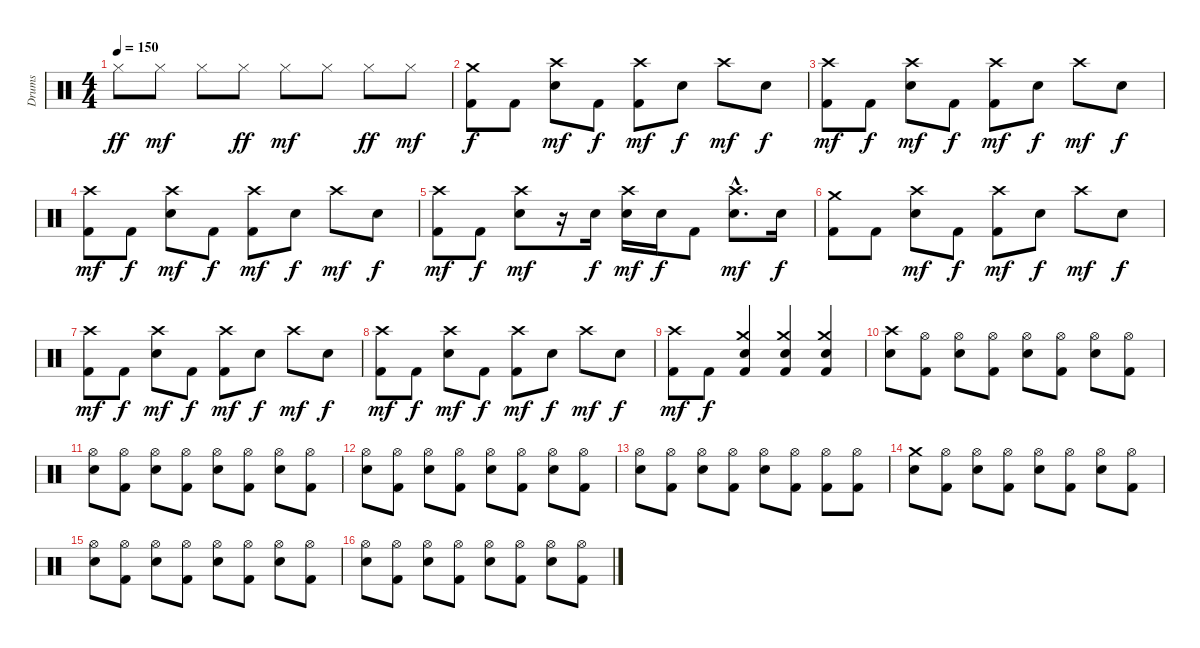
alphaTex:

\track ("Drums" "Drums") {instrument percussion}
\staff {score}
\articulation defaults
\ts (4 4)
\tempo 150
\clef neutral
\ks c "Hi-Hat (closed)".8{dy ff} "Hi-Hat (closed)".8{dy mf} "Hi-Hat (closed)".8 "Hi-Hat (closed)".8{dy ff} "Hi-Hat (closed)".8{dy mf} "Hi-Hat (closed)".8 "Hi-Hat (closed)".8{dy ff} "Hi-Hat (closed)".8{dy mf}
|
("Kick (hit) 2" "Crash medium (hit)").8{dy f} "Kick (hit) 2".8 ("Electric Snare (hit)" "Crash high (hit)").8{dy mf} "Kick (hit) 2".8{dy f} ("Kick (hit) 2" "Crash high (hit)").8{dy mf} "Electric Snare (hit)".8{dy f} "Crash high (hit)".8{dy mf} "Electric Snare (hit)".8{dy f} |
("Kick (hit) 2" "Crash high (hit)").8{dy mf} "Kick (hit) 2".8{dy f} ("Electric Snare (hit)" "Crash high (hit)").8{dy mf} "Kick (hit) 2".8{dy f} ("Kick (hit) 2" "Crash high (hit)").8{dy mf} "Electric Snare (hit)".8{dy f} "Crash high (hit)".8{dy mf} "Electric Snare (hit)".8{dy f} |
("Kick (hit) 2" "Crash high (hit)").8{dy mf} "Kick (hit) 2".8{dy f} ("Electric Snare (hit)" "Crash high (hit)").8{dy mf} "Kick (hit) 2".8{dy f} ("Kick (hit) 2" "Crash high (hit)").8{dy mf} "Electric Snare (hit)".8{dy f} "Crash high (hit)".8{dy mf} "Electric Snare (hit)".8{dy f} |
("Kick (hit) 2" "Crash high (hit)").8{dy mf} "Kick (hit) 2".8{dy f} ("Electric Snare (hit)" "Crash high (hit)").8{dy mf} r.16 "Electric Snare (hit)".16{dy f} ("Electric Snare (hit)" "Crash high (hit)").16{dy mf} "Electric Snare (hit)".16{dy f} "Kick (hit) 2".8 ("Electric Snare (hit)"{hac} "Crash high (hit)"{hac}).8{d dy mf} "Electric Snare (hit)".16{dy f} |
("Kick (hit) 2" "Crash medium (hit)").8 "Kick (hit) 2".8 ("Electric Snare (hit)" "Crash high (hit)").8{dy mf} "Kick (hit) 2".8{dy f} ("Kick (hit) 2" "Crash high (hit)").8{dy mf} "Electric Snare (hit)".8{dy f} "Crash high (hit)".8{dy mf} "Electric Snare (hit)".8{dy f} |
("Kick (hit) 2" "Crash high (hit)").8{dy mf} "Kick (hit) 2".8{dy f} ("Electric Snare (hit)" "Crash high (hit)").8{dy mf} "Kick (hit) 2".8{dy f} ("Kick (hit) 2" "Crash high (hit)").8{dy mf} "Electric Snare (hit)".8{dy f} "Crash high (hit)".8{dy mf} "Electric Snare (hit)".8{dy f} |
("Kick (hit) 2" "Crash high (hit)").8{dy mf} "Kick (hit) 2".8{dy f} ("Electric Snare (hit)" "Crash high (hit)").8{dy mf} "Kick (hit) 2".8{dy f} ("Kick (hit) 2" "Crash high (hit)").8{dy mf} "Electric Snare (hit)".8{dy f} "Crash high (hit)".8{dy mf} "Electric Snare (hit)".8{dy f} |
("Kick (hit) 2" "Crash high (hit)").8{dy mf} "Kick (hit) 2".8{dy f} ("Kick (hit) 2" "Electric Snare (hit)" "Crash medium (hit)").4 ("Kick (hit) 2" "Electric Snare (hit)" "Crash medium (hit)").4 ("Kick (hit) 2" "Electric Snare (hit)" "Crash medium (hit)").4 |
("Electric Snare (hit)" "Crash high (hit)").8 ("Kick (hit) 2" "Hi-Hat (open)").8 ("Electric Snare (hit)" "Hi-Hat (open)").8 ("Kick (hit) 2" "Hi-Hat (open)").8 ("Electric Snare (hit)" "Hi-Hat (open)").8 ("Kick (hit) 2" "Hi-Hat (open)").8 ("Electric Snare (hit)" "Hi-Hat (open)").8 ("Kick (hit) 2" "Hi-Hat (open)").8 |
("Electric Snare (hit)" "Hi-Hat (open)").8 ("Kick (hit) 2" "Hi-Hat (open)").8 ("Electric Snare (hit)" "Hi-Hat (open)").8 ("Kick (hit) 2" "Hi-Hat (open)").8 ("Electric Snare (hit)" "Hi-Hat (open)").8 ("Kick (hit) 2" "Hi-Hat (open)").8 ("Electric Snare (hit)" "Hi-Hat (open)").8 ("Kick (hit) 2" "Hi-Hat (open)").8 |
("Electric Snare (hit)" "Hi-Hat (open)").8 ("Kick (hit) 2" "Hi-Hat (open)").8 ("Electric Snare (hit)" "Hi-Hat (open)").8 ("Kick (hit) 2" "Hi-Hat (open)").8 ("Electric Snare (hit)" "Hi-Hat (open)").8 ("Kick (hit) 2" "Hi-Hat (open)").8 ("Electric Snare (hit)" "Hi-Hat (open)").8 ("Kick (hit) 2" "Hi-Hat (open)").8 |
("Electric Snare (hit)" "Hi-Hat (open)").8 ("Kick (hit) 2" "Hi-Hat (open)").8 ("Electric Snare (hit)" "Hi-Hat (open)").8 ("Kick (hit) 2" "Hi-Hat (open)").8 ("Electric Snare (hit)" "Hi-Hat (open)").8 ("Kick (hit) 2" "Hi-Hat (open)").8 ("Kick (hit) 2" "Hi-Hat (open)").8 ("Kick (hit) 2" "Hi-Hat (open)").8 |
("Electric Snare (hit)" "Crash medium (hit)").8 ("Kick (hit) 2" "Hi-Hat (open)").8 ("Electric Snare (hit)" "Hi-Hat (open)").8 ("Kick (hit) 2" "Hi-Hat (open)").8 ("Electric Snare (hit)" "Hi-Hat (open)").8 ("Kick (hit) 2" "Hi-Hat (open)").8 ("Electric Snare (hit)" "Hi-Hat (open)").8 ("Kick (hit) 2" "Hi-Hat (open)").8 |
("Electric Snare (hit)" "Hi-Hat (open)").8 ("Kick (hit) 2" "Hi-Hat (open)").8 ("Electric Snare (hit)" "Hi-Hat (open)").8 ("Kick (hit) 2" "Hi-Hat (open)").8 ("Electric Snare (hit)" "Hi-Hat (open)").8 ("Kick (hit) 2" "Hi-Hat (open)").8 ("Electric Snare (hit)" "Hi-Hat (open)").8 ("Kick (hit) 2" "Hi-Hat (open)").8 |
("Electric Snare (hit)" "Hi-Hat (open)").8 ("Kick (hit) 2" "Hi-Hat (open)").8 ("Electric Snare (hit)" "Hi-Hat (open)").8 ("Kick (hit) 2" "Hi-Hat (open)").8 ("Electric Snare (hit)" "Hi-Hat (open)").8 ("Kick (hit) 2" "Hi-Hat (open)").8 ("Electric Snare (hit)" "Hi-Hat (open)").8 ("Kick (hit) 2" "Hi-Hat (open)").8
